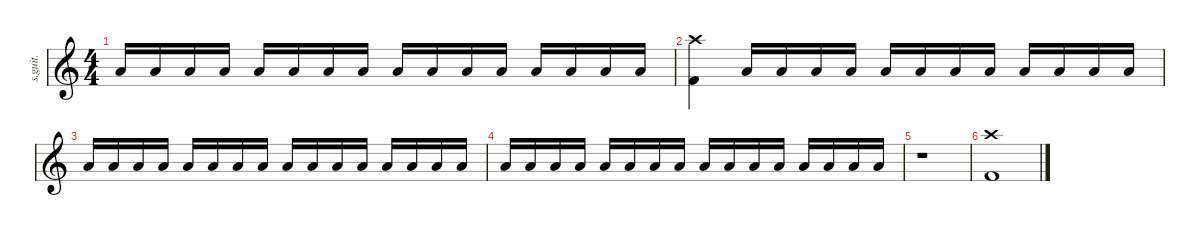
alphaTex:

\defaultSystemsLayout 4
\hideDynamics
\bracketExtendMode nobrackets
\track ("" "s.guit.") {instrument percussion}
\staff {score}
\articulation defaults
\ts (4 4)
\tempo (180 hide)
\clef g2
\ks c "Low Tom (hit)".16{dy f} "Low Tom (hit)".16 "Low Tom (hit)".16 "Low Tom (hit)".16 "Low Tom (hit)".16 "Low Tom (hit)".16 "Low Tom (hit)".16 "Low Tom (hit)".16 "Low Tom (hit)".16 "Low Tom (hit)".16 "Low Tom (hit)".16 "Low Tom (hit)".16 "Low Tom (hit)".16 "Low Tom (hit)".16 "Low Tom (hit)".16 "Low Tom (hit)".16
|
("Kick (hit) 2" "Crash high (hit)").4 "Low Tom (hit)".16 "Low Tom (hit)".16 "Low Tom (hit)".16 "Low Tom (hit)".16 "Low Tom (hit)".16 "Low Tom (hit)".16 "Low Tom (hit)".16 "Low Tom (hit)".16 "Low Tom (hit)".16 "Low Tom (hit)".16 "Low Tom (hit)".16 "Low Tom (hit)".16 |
"Low Tom (hit)".16 "Low Tom (hit)".16 "Low Tom (hit)".16 "Low Tom (hit)".16 "Low Tom (hit)".16 "Low Tom (hit)".16 "Low Tom (hit)".16 "Low Tom (hit)".16 "Low Tom (hit)".16 "Low Tom (hit)".16 "Low Tom (hit)".16 "Low Tom (hit)".16 "Low Tom (hit)".16 "Low Tom (hit)".16 "Low Tom (hit)".16 "Low Tom (hit)".16 |
"Low Tom (hit)".16 "Low Tom (hit)".16 "Low Tom (hit)".16 "Low Tom (hit)".16 "Low Tom (hit)".16 "Low Tom (hit)".16 "Low Tom (hit)".16 "Low Tom (hit)".16 "Low Tom (hit)".16 "Low Tom (hit)".16 "Low Tom (hit)".16 "Low Tom (hit)".16 "Low Tom (hit)".16 "Low Tom (hit)".16 "Low Tom (hit)".16 "Low Tom (hit)".16 |
r.1 |
("Kick (hit) 2" "Crash high (hit)").1
